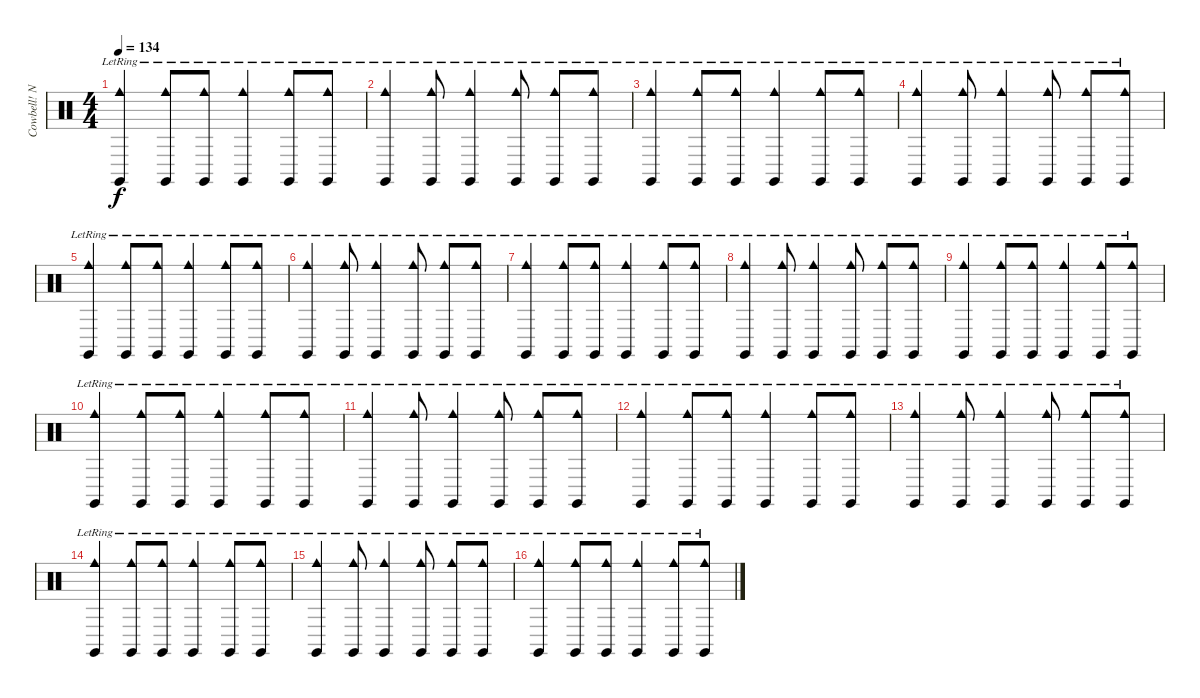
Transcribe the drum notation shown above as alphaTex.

\track ("Cowbell! Need More Cowbell!" "Cowbell! N") {instrument percussion}
\staff {score}
\articulation defaults
\ts (4 4)
\tempo 134
\clef neutral
\ks c
("Cowbell medium (hit)"{lr} "Claves (hit)").4{dy f} ("Cowbell medium (hit)"{lr} "Claves (hit)").8 ("Cowbell medium (hit)"{lr} "Claves (hit)").8 ("Cowbell medium (hit)"{lr} "Claves (hit)").4 ("Cowbell medium (hit)"{lr} "Claves (hit)").8 ("Cowbell medium (hit)"{lr} "Claves (hit)").8 |
("Cowbell medium (hit)"{lr} "Claves (hit)").4 ("Cowbell medium (hit)"{lr} "Claves (hit)").8 ("Cowbell medium (hit)"{lr} "Claves (hit)").4 ("Cowbell medium (hit)"{lr} "Claves (hit)").8 ("Cowbell medium (hit)"{lr} "Claves (hit)").8 ("Cowbell medium (hit)"{lr} "Claves (hit)").8 |
("Cowbell medium (hit)"{lr} "Claves (hit)").4 ("Cowbell medium (hit)"{lr} "Claves (hit)").8 ("Cowbell medium (hit)"{lr} "Claves (hit)").8 ("Cowbell medium (hit)"{lr} "Claves (hit)").4 ("Cowbell medium (hit)"{lr} "Claves (hit)").8 ("Cowbell medium (hit)"{lr} "Claves (hit)").8 |
("Cowbell medium (hit)"{lr} "Claves (hit)").4 ("Cowbell medium (hit)"{lr} "Claves (hit)").8 ("Cowbell medium (hit)"{lr} "Claves (hit)").4 ("Cowbell medium (hit)"{lr} "Claves (hit)").8 ("Cowbell medium (hit)"{lr} "Claves (hit)").8 ("Cowbell medium (hit)"{lr} "Claves (hit)").8 |
("Cowbell medium (hit)"{lr} "Claves (hit)").4 ("Cowbell medium (hit)"{lr} "Claves (hit)").8 ("Cowbell medium (hit)"{lr} "Claves (hit)").8 ("Cowbell medium (hit)"{lr} "Claves (hit)").4 ("Cowbell medium (hit)"{lr} "Claves (hit)").8 ("Cowbell medium (hit)"{lr} "Claves (hit)").8 |
("Cowbell medium (hit)"{lr} "Claves (hit)").4 ("Cowbell medium (hit)"{lr} "Claves (hit)").8 ("Cowbell medium (hit)"{lr} "Claves (hit)").4 ("Cowbell medium (hit)"{lr} "Claves (hit)").8 ("Cowbell medium (hit)"{lr} "Claves (hit)").8 ("Cowbell medium (hit)"{lr} "Claves (hit)").8 |
("Cowbell medium (hit)"{lr} "Claves (hit)").4 ("Cowbell medium (hit)"{lr} "Claves (hit)").8 ("Cowbell medium (hit)"{lr} "Claves (hit)").8 ("Cowbell medium (hit)"{lr} "Claves (hit)").4 ("Cowbell medium (hit)"{lr} "Claves (hit)").8 ("Cowbell medium (hit)"{lr} "Claves (hit)").8 |
("Cowbell medium (hit)"{lr} "Claves (hit)").4 ("Cowbell medium (hit)"{lr} "Claves (hit)").8 ("Cowbell medium (hit)"{lr} "Claves (hit)").4 ("Cowbell medium (hit)"{lr} "Claves (hit)").8 ("Cowbell medium (hit)"{lr} "Claves (hit)").8 ("Cowbell medium (hit)"{lr} "Claves (hit)").8 |
("Cowbell medium (hit)"{lr} "Claves (hit)").4 ("Cowbell medium (hit)"{lr} "Claves (hit)").8 ("Cowbell medium (hit)"{lr} "Claves (hit)").8 ("Cowbell medium (hit)"{lr} "Claves (hit)").4 ("Cowbell medium (hit)"{lr} "Claves (hit)").8 ("Cowbell medium (hit)"{lr} "Claves (hit)").8 |
("Cowbell medium (hit)"{lr} "Claves (hit)").4 ("Cowbell medium (hit)"{lr} "Claves (hit)").8 ("Cowbell medium (hit)"{lr} "Claves (hit)").8 ("Cowbell medium (hit)"{lr} "Claves (hit)").4 ("Cowbell medium (hit)"{lr} "Claves (hit)").8 ("Cowbell medium (hit)"{lr} "Claves (hit)").8 |
("Cowbell medium (hit)"{lr} "Claves (hit)").4 ("Cowbell medium (hit)"{lr} "Claves (hit)").8 ("Cowbell medium (hit)"{lr} "Claves (hit)").4 ("Cowbell medium (hit)"{lr} "Claves (hit)").8 ("Cowbell medium (hit)"{lr} "Claves (hit)").8 ("Cowbell medium (hit)"{lr} "Claves (hit)").8 |
("Cowbell medium (hit)"{lr} "Claves (hit)").4 ("Cowbell medium (hit)"{lr} "Claves (hit)").8 ("Cowbell medium (hit)"{lr} "Claves (hit)").8 ("Cowbell medium (hit)"{lr} "Claves (hit)").4 ("Cowbell medium (hit)"{lr} "Claves (hit)").8 ("Cowbell medium (hit)"{lr} "Claves (hit)").8 |
("Cowbell medium (hit)"{lr} "Claves (hit)").4 ("Cowbell medium (hit)"{lr} "Claves (hit)").8 ("Cowbell medium (hit)"{lr} "Claves (hit)").4 ("Cowbell medium (hit)"{lr} "Claves (hit)").8 ("Cowbell medium (hit)"{lr} "Claves (hit)").8 ("Cowbell medium (hit)"{lr} "Claves (hit)").8 |
("Cowbell medium (hit)"{lr} "Claves (hit)").4 ("Cowbell medium (hit)"{lr} "Claves (hit)").8 ("Cowbell medium (hit)"{lr} "Claves (hit)").8 ("Cowbell medium (hit)"{lr} "Claves (hit)").4 ("Cowbell medium (hit)"{lr} "Claves (hit)").8 ("Cowbell medium (hit)"{lr} "Claves (hit)").8 |
("Cowbell medium (hit)"{lr} "Claves (hit)").4 ("Cowbell medium (hit)"{lr} "Claves (hit)").8 ("Cowbell medium (hit)"{lr} "Claves (hit)").4 ("Cowbell medium (hit)"{lr} "Claves (hit)").8 ("Cowbell medium (hit)"{lr} "Claves (hit)").8 ("Cowbell medium (hit)"{lr} "Claves (hit)").8 |
("Cowbell medium (hit)"{lr} "Claves (hit)").4 ("Cowbell medium (hit)"{lr} "Claves (hit)").8 ("Cowbell medium (hit)"{lr} "Claves (hit)").8 ("Cowbell medium (hit)"{lr} "Claves (hit)").4 ("Cowbell medium (hit)"{lr} "Claves (hit)").8 ("Cowbell medium (hit)"{lr} "Claves (hit)").8
